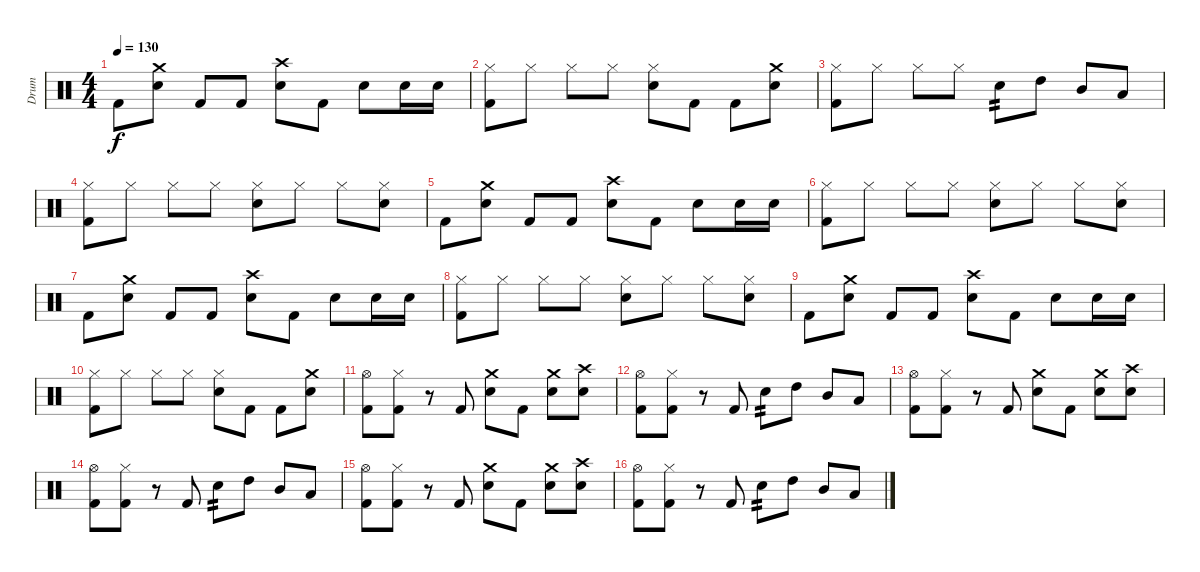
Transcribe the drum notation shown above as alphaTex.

\track ("Drum" "Drum") {instrument percussion}
\staff {score}
\articulation defaults
\ts (4 4)
\tempo 130
\clef neutral
\ks c "Kick (hit) 2".8{dy f}
("Crash medium (hit)" "Electric Snare (hit)").8 "Kick (hit) 2".8 "Kick (hit) 2".8 ("Crash high (hit)" "Electric Snare (hit)").8 "Kick (hit) 2".8 "Electric Snare (hit)".8 "Electric Snare (hit)".16 "Electric Snare (hit)".16 |
("Hi-Hat (closed)" "Kick (hit) 2").8 "Hi-Hat (closed)".8 "Hi-Hat (closed)".8 "Hi-Hat (closed)".8 ("Hi-Hat (closed)" "Electric Snare (hit)").8 "Kick (hit) 2".8 "Kick (hit) 2".8 ("Crash medium (hit)" "Electric Snare (hit)").8 |
("Hi-Hat (closed)" "Kick (hit) 2").8 "Hi-Hat (closed)".8 "Hi-Hat (closed)".8 "Hi-Hat (closed)".8 "Electric Snare (hit)".8{tp 2} "High Tom (hit)".8 "Mid Tom (hit)".8 "Low Tom (hit)".8 |
("Hi-Hat (closed)" "Kick (hit) 2").8 "Hi-Hat (closed)".8 "Hi-Hat (closed)".8 "Hi-Hat (closed)".8 ("Hi-Hat (closed)" "Electric Snare (hit)").8 "Hi-Hat (closed)".8 "Hi-Hat (closed)".8 ("Hi-Hat (closed)" "Electric Snare (hit)").8 |
"Kick (hit) 2".8 ("Crash medium (hit)" "Electric Snare (hit)").8 "Kick (hit) 2".8 "Kick (hit) 2".8 ("Crash high (hit)" "Electric Snare (hit)").8 "Kick (hit) 2".8 "Electric Snare (hit)".8 "Electric Snare (hit)".16 "Electric Snare (hit)".16 |
("Hi-Hat (closed)" "Kick (hit) 2").8 "Hi-Hat (closed)".8 "Hi-Hat (closed)".8 "Hi-Hat (closed)".8 ("Hi-Hat (closed)" "Electric Snare (hit)").8 "Hi-Hat (closed)".8 "Hi-Hat (closed)".8 ("Hi-Hat (closed)" "Electric Snare (hit)").8 |
"Kick (hit) 2".8 ("Crash medium (hit)" "Electric Snare (hit)").8 "Kick (hit) 2".8 "Kick (hit) 2".8 ("Crash high (hit)" "Electric Snare (hit)").8 "Kick (hit) 2".8 "Electric Snare (hit)".8 "Electric Snare (hit)".16 "Electric Snare (hit)".16 |
("Hi-Hat (closed)" "Kick (hit) 2").8 "Hi-Hat (closed)".8 "Hi-Hat (closed)".8 "Hi-Hat (closed)".8 ("Hi-Hat (closed)" "Electric Snare (hit)").8 "Hi-Hat (closed)".8 "Hi-Hat (closed)".8 ("Hi-Hat (closed)" "Electric Snare (hit)").8 |
"Kick (hit) 2".8 ("Crash medium (hit)" "Electric Snare (hit)").8 "Kick (hit) 2".8 "Kick (hit) 2".8 ("Crash high (hit)" "Electric Snare (hit)").8 "Kick (hit) 2".8 "Electric Snare (hit)".8 "Electric Snare (hit)".16 "Electric Snare (hit)".16 |
("Hi-Hat (closed)" "Kick (hit) 2").8 "Hi-Hat (closed)".8 "Hi-Hat (closed)".8 "Hi-Hat (closed)".8 ("Hi-Hat (closed)" "Electric Snare (hit)").8 "Kick (hit) 2".8 "Kick (hit) 2".8 ("Crash medium (hit)" "Electric Snare (hit)").8 |
("Hi-Hat (open)" "Kick (hit) 2").8 ("Hi-Hat (closed)" "Kick (hit) 2").8 r.8 "Kick (hit) 2".8 ("Crash medium (hit)" "Electric Snare (hit)").8 "Kick (hit) 2".8 ("Crash medium (hit)" "Electric Snare (hit)").8 ("Crash high (hit)" "Electric Snare (hit)").8 |
("Hi-Hat (open)" "Kick (hit) 2").8 ("Hi-Hat (closed)" "Kick (hit) 2").8 r.8 "Kick (hit) 2".8 "Electric Snare (hit)".8{tp 2} "High Tom (hit)".8 "Mid Tom (hit)".8 "Low Tom (hit)".8 |
("Hi-Hat (open)" "Kick (hit) 2").8 ("Hi-Hat (closed)" "Kick (hit) 2").8 r.8 "Kick (hit) 2".8 ("Crash medium (hit)" "Electric Snare (hit)").8 "Kick (hit) 2".8 ("Crash medium (hit)" "Electric Snare (hit)").8 ("Crash high (hit)" "Electric Snare (hit)").8 |
("Hi-Hat (open)" "Kick (hit) 2").8 ("Hi-Hat (closed)" "Kick (hit) 2").8 r.8 "Kick (hit) 2".8 "Electric Snare (hit)".8{tp 2} "High Tom (hit)".8 "Mid Tom (hit)".8 "Low Tom (hit)".8 |
("Hi-Hat (open)" "Kick (hit) 2").8 ("Hi-Hat (closed)" "Kick (hit) 2").8 r.8 "Kick (hit) 2".8 ("Crash medium (hit)" "Electric Snare (hit)").8 "Kick (hit) 2".8 ("Crash medium (hit)" "Electric Snare (hit)").8 ("Crash high (hit)" "Electric Snare (hit)").8 |
("Hi-Hat (open)" "Kick (hit) 2").8 ("Hi-Hat (closed)" "Kick (hit) 2").8 r.8 "Kick (hit) 2".8 "Electric Snare (hit)".8{tp 2} "High Tom (hit)".8 "Mid Tom (hit)".8 "Low Tom (hit)".8
